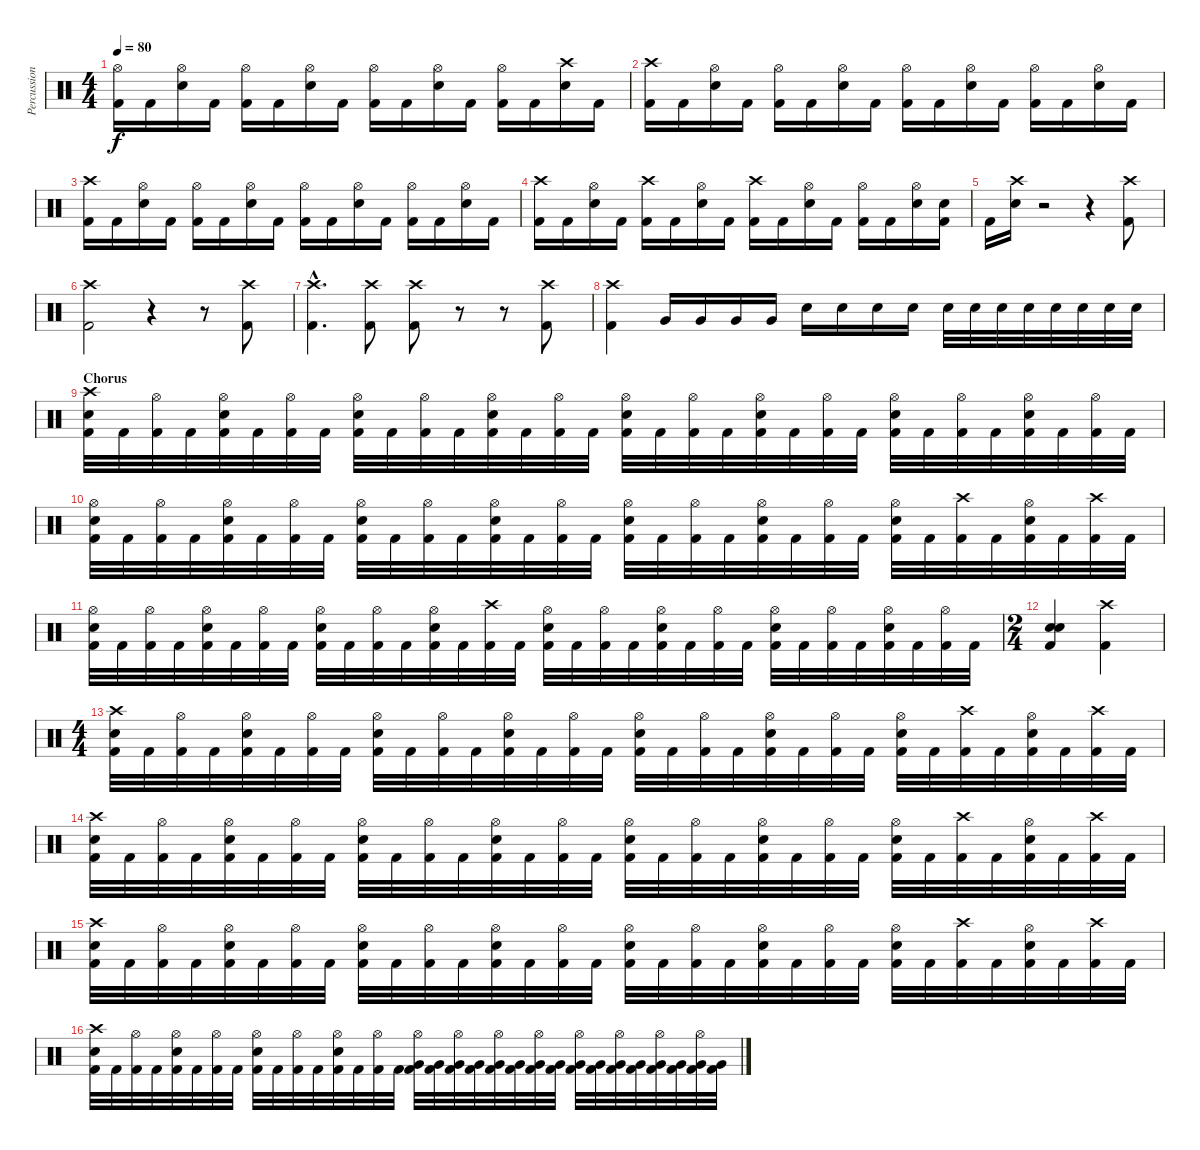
\track ("Percussions" "Percussion") {instrument percussion}
\staff {score}
\articulation defaults
\ts (4 4)
\tempo 80
\clef neutral
\ks c
("Hi-Hat (open)" "Kick (hit) 2").16{dy f} "Kick (hit) 2".16 ("Hi-Hat (open)" "Electric Snare (hit)").16 "Kick (hit) 2".16 ("Hi-Hat (open)" "Kick (hit) 2").16 "Kick (hit) 2".16 ("Hi-Hat (open)" "Electric Snare (hit)").16 "Kick (hit) 2".16 ("Hi-Hat (open)" "Kick (hit) 2").16 "Kick (hit) 2".16 ("Hi-Hat (open)" "Electric Snare (hit)").16 "Kick (hit) 2".16 ("Hi-Hat (open)" "Kick (hit) 2").16 "Kick (hit) 2".16 ("Crash high (hit)" "Electric Snare (hit)").16 "Kick (hit) 2".16 |
("Crash high (hit)" "Kick (hit) 2").16 "Kick (hit) 2".16 ("Hi-Hat (open)" "Electric Snare (hit)").16 "Kick (hit) 2".16 ("Hi-Hat (open)" "Kick (hit) 2").16 "Kick (hit) 2".16 ("Hi-Hat (open)" "Electric Snare (hit)").16 "Kick (hit) 2".16 ("Hi-Hat (open)" "Kick (hit) 2").16 "Kick (hit) 2".16 ("Hi-Hat (open)" "Electric Snare (hit)").16 "Kick (hit) 2".16 ("Hi-Hat (open)" "Kick (hit) 2").16 "Kick (hit) 2".16 ("Hi-Hat (open)" "Electric Snare (hit)").16 "Kick (hit) 2".16 |
("Crash high (hit)" "Kick (hit) 2").16 "Kick (hit) 2".16 ("Hi-Hat (open)" "Electric Snare (hit)").16 "Kick (hit) 2".16 ("Hi-Hat (open)" "Kick (hit) 2").16 "Kick (hit) 2".16 ("Hi-Hat (open)" "Electric Snare (hit)").16 "Kick (hit) 2".16 ("Hi-Hat (open)" "Kick (hit) 2").16 "Kick (hit) 2".16 ("Hi-Hat (open)" "Electric Snare (hit)").16 "Kick (hit) 2".16 ("Hi-Hat (open)" "Kick (hit) 2").16 "Kick (hit) 2".16 ("Hi-Hat (open)" "Electric Snare (hit)").16 "Kick (hit) 2".16 |
("Crash high (hit)" "Kick (hit) 2").16 "Kick (hit) 2".16 ("Hi-Hat (open)" "Electric Snare (hit)").16 "Kick (hit) 2".16 ("Crash high (hit)" "Kick (hit) 2").16 "Kick (hit) 2".16 ("Hi-Hat (open)" "Electric Snare (hit)").16 "Kick (hit) 2".16 ("Crash high (hit)" "Kick (hit) 2").16 "Kick (hit) 2".16 ("Hi-Hat (open)" "Electric Snare (hit)").16 "Kick (hit) 2".16 ("Hi-Hat (open)" "Kick (hit) 2").16 "Kick (hit) 2".16 ("Hi-Hat (open)" "Electric Snare (hit)").16 ("Electric Snare (hit)" "Kick (hit) 2").16 |
"Kick (hit) 2".16 ("Crash high (hit)" "Electric Snare (hit)").16 r.2 r.4 ("Crash high (hit)" "Kick (hit) 2").8 |
("Crash high (hit)" "Kick (hit) 2").2 r.4 r.8 ("Crash high (hit)" "Kick (hit) 2").8 |
("Crash high (hit)"{hac} "Kick (hit) 2"{hac}).4{d} ("Crash high (hit)" "Kick (hit) 2").8 ("Crash high (hit)" "Kick (hit) 2").8 r.8 r.8 ("Crash high (hit)" "Kick (hit) 2").8 |
("Crash high (hit)" "Kick (hit) 2").4 "Very Low Tom (hit)".16 "Very Low Tom (hit)".16 "Very Low Tom (hit)".16 "Very Low Tom (hit)".16 "Electric Snare (hit)".16 "Electric Snare (hit)".16 "Electric Snare (hit)".16 "Electric Snare (hit)".16 "Electric Snare (hit)".32 "Electric Snare (hit)".32 "Electric Snare (hit)".32 "Electric Snare (hit)".32 "Electric Snare (hit)".32 "Electric Snare (hit)".32 "Electric Snare (hit)".32 "Electric Snare (hit)".32 |
\section ("" "Chorus")
("Crash high (hit)" "Electric Snare (hit)" "Kick (hit) 2").32 "Kick (hit) 2".32 ("Hi-Hat (open)" "Kick (hit) 2").32 "Kick (hit) 2".32 ("Hi-Hat (open)" "Electric Snare (hit)" "Kick (hit) 2").32 "Kick (hit) 2".32 ("Hi-Hat (open)" "Kick (hit) 2").32 "Kick (hit) 2".32 ("Hi-Hat (open)" "Electric Snare (hit)" "Kick (hit) 2").32 "Kick (hit) 2".32 ("Hi-Hat (open)" "Kick (hit) 2").32 "Kick (hit) 2".32 ("Hi-Hat (open)" "Electric Snare (hit)" "Kick (hit) 2").32 "Kick (hit) 2".32 ("Hi-Hat (open)" "Kick (hit) 2").32 "Kick (hit) 2".32 ("Hi-Hat (open)" "Electric Snare (hit)" "Kick (hit) 2").32 "Kick (hit) 2".32 ("Hi-Hat (open)" "Kick (hit) 2").32 "Kick (hit) 2".32 ("Hi-Hat (open)" "Electric Snare (hit)" "Kick (hit) 2").32 "Kick (hit) 2".32 ("Hi-Hat (open)" "Kick (hit) 2").32 "Kick (hit) 2".32 ("Hi-Hat (open)" "Electric Snare (hit)" "Kick (hit) 2").32 "Kick (hit) 2".32 ("Hi-Hat (open)" "Kick (hit) 2").32 "Kick (hit) 2".32 ("Hi-Hat (open)" "Electric Snare (hit)" "Kick (hit) 2").32 "Kick (hit) 2".32 ("Hi-Hat (open)" "Kick (hit) 2").32 "Kick (hit) 2".32 |
("Hi-Hat (open)" "Electric Snare (hit)" "Kick (hit) 2").32 "Kick (hit) 2".32 ("Hi-Hat (open)" "Kick (hit) 2").32 "Kick (hit) 2".32 ("Hi-Hat (open)" "Electric Snare (hit)" "Kick (hit) 2").32 "Kick (hit) 2".32 ("Hi-Hat (open)" "Kick (hit) 2").32 "Kick (hit) 2".32 ("Hi-Hat (open)" "Electric Snare (hit)" "Kick (hit) 2").32 "Kick (hit) 2".32 ("Hi-Hat (open)" "Kick (hit) 2").32 "Kick (hit) 2".32 ("Hi-Hat (open)" "Electric Snare (hit)" "Kick (hit) 2").32 "Kick (hit) 2".32 ("Hi-Hat (open)" "Kick (hit) 2").32 "Kick (hit) 2".32 ("Hi-Hat (open)" "Electric Snare (hit)" "Kick (hit) 2").32 "Kick (hit) 2".32 ("Hi-Hat (open)" "Kick (hit) 2").32 "Kick (hit) 2".32 ("Hi-Hat (open)" "Electric Snare (hit)" "Kick (hit) 2").32 "Kick (hit) 2".32 ("Hi-Hat (open)" "Kick (hit) 2").32 "Kick (hit) 2".32 ("Hi-Hat (open)" "Electric Snare (hit)" "Kick (hit) 2").32 "Kick (hit) 2".32 ("Crash high (hit)" "Kick (hit) 2").32 "Kick (hit) 2".32 ("Hi-Hat (open)" "Electric Snare (hit)" "Kick (hit) 2").32 "Kick (hit) 2".32 ("Crash high (hit)" "Kick (hit) 2").32 "Kick (hit) 2".32 |
("Hi-Hat (open)" "Electric Snare (hit)" "Kick (hit) 2").32 "Kick (hit) 2".32 ("Hi-Hat (open)" "Kick (hit) 2").32 "Kick (hit) 2".32 ("Hi-Hat (open)" "Electric Snare (hit)" "Kick (hit) 2").32 "Kick (hit) 2".32 ("Hi-Hat (open)" "Kick (hit) 2").32 "Kick (hit) 2".32 ("Hi-Hat (open)" "Electric Snare (hit)" "Kick (hit) 2").32 "Kick (hit) 2".32 ("Hi-Hat (open)" "Kick (hit) 2").32 "Kick (hit) 2".32 ("Hi-Hat (open)" "Electric Snare (hit)" "Kick (hit) 2").32 "Kick (hit) 2".32 ("Crash high (hit)" "Kick (hit) 2").32 "Kick (hit) 2".32 ("Hi-Hat (open)" "Electric Snare (hit)" "Kick (hit) 2").32 "Kick (hit) 2".32 ("Hi-Hat (open)" "Kick (hit) 2").32 "Kick (hit) 2".32 ("Hi-Hat (open)" "Electric Snare (hit)" "Kick (hit) 2").32 "Kick (hit) 2".32 ("Hi-Hat (open)" "Kick (hit) 2").32 "Kick (hit) 2".32 ("Hi-Hat (open)" "Electric Snare (hit)" "Kick (hit) 2").32 "Kick (hit) 2".32 ("Hi-Hat (open)" "Kick (hit) 2").32 "Kick (hit) 2".32 ("Hi-Hat (open)" "Electric Snare (hit)" "Kick (hit) 2").32 "Kick (hit) 2".32 ("Hi-Hat (open)" "Kick (hit) 2").32 "Kick (hit) 2".32 |
\ts (2 4)
("Electric Snare (hit)" "Electric Snare (hit)" "Kick (hit) 2").4 ("Crash high (hit)" "Kick (hit) 2").4 |
\ts (4 4)
("Crash high (hit)" "Electric Snare (hit)" "Kick (hit) 2").32 "Kick (hit) 2".32 ("Hi-Hat (open)" "Kick (hit) 2").32 "Kick (hit) 2".32 ("Hi-Hat (open)" "Electric Snare (hit)" "Kick (hit) 2").32 "Kick (hit) 2".32 ("Hi-Hat (open)" "Kick (hit) 2").32 "Kick (hit) 2".32 ("Hi-Hat (open)" "Electric Snare (hit)" "Kick (hit) 2").32 "Kick (hit) 2".32 ("Hi-Hat (open)" "Kick (hit) 2").32 "Kick (hit) 2".32 ("Hi-Hat (open)" "Electric Snare (hit)" "Kick (hit) 2").32 "Kick (hit) 2".32 ("Hi-Hat (open)" "Kick (hit) 2").32 "Kick (hit) 2".32 ("Hi-Hat (open)" "Electric Snare (hit)" "Kick (hit) 2").32 "Kick (hit) 2".32 ("Hi-Hat (open)" "Kick (hit) 2").32 "Kick (hit) 2".32 ("Hi-Hat (open)" "Electric Snare (hit)" "Kick (hit) 2").32 "Kick (hit) 2".32 ("Hi-Hat (open)" "Kick (hit) 2").32 "Kick (hit) 2".32 ("Hi-Hat (open)" "Electric Snare (hit)" "Kick (hit) 2").32 "Kick (hit) 2".32 ("Crash high (hit)" "Kick (hit) 2").32 "Kick (hit) 2".32 ("Hi-Hat (open)" "Electric Snare (hit)" "Kick (hit) 2").32 "Kick (hit) 2".32 ("Crash high (hit)" "Kick (hit) 2").32 "Kick (hit) 2".32 |
("Crash high (hit)" "Electric Snare (hit)" "Kick (hit) 2").32 "Kick (hit) 2".32 ("Hi-Hat (open)" "Kick (hit) 2").32 "Kick (hit) 2".32 ("Hi-Hat (open)" "Electric Snare (hit)" "Kick (hit) 2").32 "Kick (hit) 2".32 ("Hi-Hat (open)" "Kick (hit) 2").32 "Kick (hit) 2".32 ("Hi-Hat (open)" "Electric Snare (hit)" "Kick (hit) 2").32 "Kick (hit) 2".32 ("Hi-Hat (open)" "Kick (hit) 2").32 "Kick (hit) 2".32 ("Hi-Hat (open)" "Electric Snare (hit)" "Kick (hit) 2").32 "Kick (hit) 2".32 ("Hi-Hat (open)" "Kick (hit) 2").32 "Kick (hit) 2".32 ("Hi-Hat (open)" "Electric Snare (hit)" "Kick (hit) 2").32 "Kick (hit) 2".32 ("Hi-Hat (open)" "Kick (hit) 2").32 "Kick (hit) 2".32 ("Hi-Hat (open)" "Electric Snare (hit)" "Kick (hit) 2").32 "Kick (hit) 2".32 ("Hi-Hat (open)" "Kick (hit) 2").32 "Kick (hit) 2".32 ("Hi-Hat (open)" "Electric Snare (hit)" "Kick (hit) 2").32 "Kick (hit) 2".32 ("Crash high (hit)" "Kick (hit) 2").32 "Kick (hit) 2".32 ("Hi-Hat (open)" "Electric Snare (hit)" "Kick (hit) 2").32 "Kick (hit) 2".32 ("Crash high (hit)" "Kick (hit) 2").32 "Kick (hit) 2".32 |
("Crash high (hit)" "Electric Snare (hit)" "Kick (hit) 2").32 "Kick (hit) 2".32 ("Hi-Hat (open)" "Kick (hit) 2").32 "Kick (hit) 2".32 ("Hi-Hat (open)" "Electric Snare (hit)" "Kick (hit) 2").32 "Kick (hit) 2".32 ("Hi-Hat (open)" "Kick (hit) 2").32 "Kick (hit) 2".32 ("Hi-Hat (open)" "Electric Snare (hit)" "Kick (hit) 2").32 "Kick (hit) 2".32 ("Hi-Hat (open)" "Kick (hit) 2").32 "Kick (hit) 2".32 ("Hi-Hat (open)" "Electric Snare (hit)" "Kick (hit) 2").32 "Kick (hit) 2".32 ("Hi-Hat (open)" "Kick (hit) 2").32 "Kick (hit) 2".32 ("Hi-Hat (open)" "Electric Snare (hit)" "Kick (hit) 2").32 "Kick (hit) 2".32 ("Hi-Hat (open)" "Kick (hit) 2").32 "Kick (hit) 2".32 ("Hi-Hat (open)" "Electric Snare (hit)" "Kick (hit) 2").32 "Kick (hit) 2".32 ("Hi-Hat (open)" "Kick (hit) 2").32 "Kick (hit) 2".32 ("Hi-Hat (open)" "Electric Snare (hit)" "Kick (hit) 2").32 "Kick (hit) 2".32 ("Crash high (hit)" "Kick (hit) 2").32 "Kick (hit) 2".32 ("Hi-Hat (open)" "Electric Snare (hit)" "Kick (hit) 2").32 "Kick (hit) 2".32 ("Crash high (hit)" "Kick (hit) 2").32 "Kick (hit) 2".32 |
("Crash high (hit)" "Electric Snare (hit)" "Kick (hit) 2").32 "Kick (hit) 2".32 ("Hi-Hat (open)" "Kick (hit) 2").32 "Kick (hit) 2".32 ("Hi-Hat (open)" "Electric Snare (hit)" "Kick (hit) 2").32 "Kick (hit) 2".32 ("Hi-Hat (open)" "Kick (hit) 2").32 "Kick (hit) 2".32 ("Hi-Hat (open)" "Electric Snare (hit)" "Kick (hit) 2").32 "Kick (hit) 2".32 ("Hi-Hat (open)" "Kick (hit) 2").32 "Kick (hit) 2".32 ("Hi-Hat (open)" "Electric Snare (hit)" "Kick (hit) 2").32 "Kick (hit) 2".32 ("Hi-Hat (open)" "Kick (hit) 2").32 "Kick (hit) 2".32 ("Hi-Hat (open)" "Very Low Tom (hit)" "Kick (hit) 2").32 ("Very Low Tom (hit)" "Kick (hit) 2").32 ("Hi-Hat (open)" "Very Low Tom (hit)" "Kick (hit) 2").32 ("Very Low Tom (hit)" "Kick (hit) 2").32 ("Hi-Hat (open)" "Very Low Tom (hit)" "Kick (hit) 2").32 ("Very Low Tom (hit)" "Kick (hit) 2").32 ("Hi-Hat (open)" "Very Low Tom (hit)" "Kick (hit) 2").32 ("Very Low Tom (hit)" "Kick (hit) 2").32 ("Hi-Hat (open)" "Very Low Tom (hit)" "Kick (hit) 2").32 ("Very Low Tom (hit)" "Kick (hit) 2").32 ("Hi-Hat (open)" "Very Low Tom (hit)" "Kick (hit) 2").32 ("Very Low Tom (hit)" "Kick (hit) 2").32 ("Hi-Hat (open)" "Very Low Tom (hit)" "Kick (hit) 2").32 ("Very Low Tom (hit)" "Kick (hit) 2").32 ("Hi-Hat (open)" "Very Low Tom (hit)" "Kick (hit) 2").32 ("Very Low Tom (hit)" "Kick (hit) 2").32
